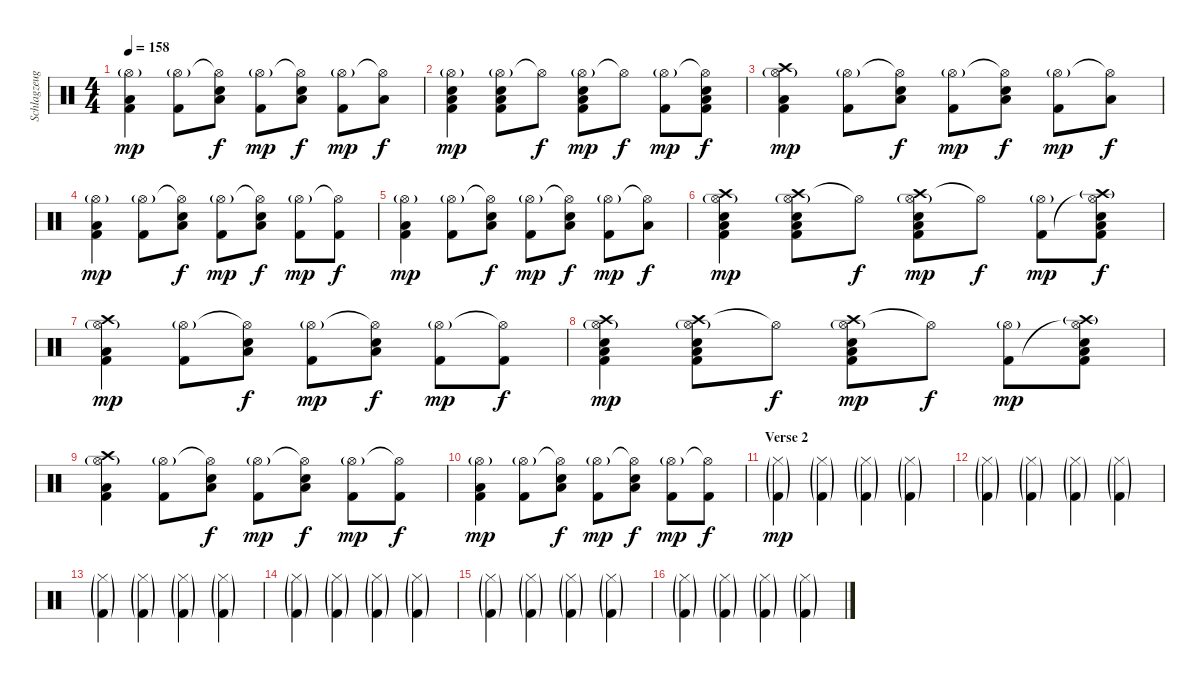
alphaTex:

\track ("Schlagzeug" "Schlagzeug") {instrument percussion}
\staff {score}
\articulation defaults
\ts (4 4)
\tempo 158
\clef neutral
\ks c
("Hi-Hat (open)"{g} "Low Floor Tom (hit)" "Kick (hit) 2").4{dy mp} ("Hi-Hat (open)"{g} "Kick (hit) 2").8 ("Hi-Hat (open)"{t} "Low Floor Tom (hit)" "Electric Snare (hit)").8{dy f} ("Hi-Hat (open)"{g} "Kick (hit) 2").8{dy mp} ("Hi-Hat (open)"{t} "Low Floor Tom (hit)" "Electric Snare (hit)").8{dy f} ("Hi-Hat (open)"{g} "Kick (hit) 2").8{dy mp} ("Hi-Hat (open)"{t} "Low Floor Tom (hit)").8{dy f} |
("Hi-Hat (open)"{g} "Low Floor Tom (hit)" "Electric Snare (hit)" "Kick (hit) 2").4{dy mp} ("Hi-Hat (open)"{g} "Low Floor Tom (hit)" "Electric Snare (hit)" "Kick (hit) 2").8 "Hi-Hat (open)"{t}.8{dy f} ("Hi-Hat (open)"{g} "Low Floor Tom (hit)" "Electric Snare (hit)" "Kick (hit) 2").8{dy mp} "Hi-Hat (open)"{t}.8{dy f} ("Hi-Hat (open)"{g} "Kick (hit) 2").8{dy mp} ("Hi-Hat (open)"{t} "Low Floor Tom (hit)" "Electric Snare (hit)" "Kick (hit) 2").8{dy f} |
("Crash high (hit)" "Hi-Hat (open)"{g} "Low Floor Tom (hit)" "Kick (hit) 2").4{dy mp} ("Hi-Hat (open)"{g} "Kick (hit) 2").8 ("Hi-Hat (open)"{t} "Low Floor Tom (hit)" "Electric Snare (hit)").8{dy f} ("Hi-Hat (open)"{g} "Kick (hit) 2").8{dy mp} ("Hi-Hat (open)"{t} "Low Floor Tom (hit)" "Electric Snare (hit)").8{dy f} ("Hi-Hat (open)"{g} "Kick (hit) 2").8{dy mp} ("Hi-Hat (open)"{t} "Low Floor Tom (hit)").8{dy f} |
("Hi-Hat (open)"{g} "Low Floor Tom (hit)" "Kick (hit) 2").4{dy mp} ("Hi-Hat (open)"{g} "Kick (hit) 2").8 ("Hi-Hat (open)"{t} "Low Floor Tom (hit)" "Electric Snare (hit)").8{dy f} ("Hi-Hat (open)"{g} "Kick (hit) 2").8{dy mp} ("Hi-Hat (open)"{t} "Low Floor Tom (hit)" "Electric Snare (hit)").8{dy f} ("Hi-Hat (open)"{g} "Kick (hit) 2").8{dy mp} ("Hi-Hat (open)"{t} "Kick (hit) 2").8{dy f} |
("Hi-Hat (open)"{g} "Low Floor Tom (hit)" "Kick (hit) 2").4{dy mp} ("Hi-Hat (open)"{g} "Kick (hit) 2").8 ("Hi-Hat (open)"{t} "Low Floor Tom (hit)" "Electric Snare (hit)").8{dy f} ("Hi-Hat (open)"{g} "Kick (hit) 2").8{dy mp} ("Hi-Hat (open)"{t} "Low Floor Tom (hit)" "Electric Snare (hit)").8{dy f} ("Hi-Hat (open)"{g} "Kick (hit) 2").8{dy mp} ("Hi-Hat (open)"{t} "Low Floor Tom (hit)").8{dy f} |
("Crash high (hit)" "Hi-Hat (open)"{g} "Low Floor Tom (hit)" "Electric Snare (hit)" "Kick (hit) 2").4{dy mp} ("Crash high (hit)" "Hi-Hat (open)"{g} "Low Floor Tom (hit)" "Electric Snare (hit)" "Kick (hit) 2").8 "Hi-Hat (open)"{t}.8{dy f} ("Crash high (hit)" "Hi-Hat (open)"{g} "Low Floor Tom (hit)" "Electric Snare (hit)" "Kick (hit) 2").8{dy mp} "Hi-Hat (open)"{t}.8{dy f} ("Hi-Hat (open)"{g} "Kick (hit) 2").8{dy mp} ("Crash high (hit)"{g} "Hi-Hat (open)"{t} "Low Floor Tom (hit)" "Electric Snare (hit)" "Kick (hit) 2").8{dy f} |
("Crash high (hit)" "Hi-Hat (open)"{g} "Low Floor Tom (hit)" "Kick (hit) 2").4{dy mp} ("Hi-Hat (open)"{g} "Kick (hit) 2").8 ("Hi-Hat (open)"{t} "Low Floor Tom (hit)" "Electric Snare (hit)").8{dy f} ("Hi-Hat (open)"{g} "Kick (hit) 2").8{dy mp} ("Hi-Hat (open)"{t} "Low Floor Tom (hit)" "Electric Snare (hit)").8{dy f} ("Hi-Hat (open)"{g} "Kick (hit) 2").8{dy mp} ("Hi-Hat (open)"{t} "Kick (hit) 2").8{dy f} |
("Crash high (hit)" "Hi-Hat (open)"{g} "Low Floor Tom (hit)" "Electric Snare (hit)" "Kick (hit) 2").4{dy mp} ("Crash high (hit)" "Hi-Hat (open)"{g} "Low Floor Tom (hit)" "Electric Snare (hit)" "Kick (hit) 2").8 "Hi-Hat (open)"{t}.8{dy f} ("Crash high (hit)" "Hi-Hat (open)"{g} "Low Floor Tom (hit)" "Electric Snare (hit)" "Kick (hit) 2").8{dy mp} "Hi-Hat (open)"{t}.8{dy f} ("Hi-Hat (open)"{g} "Kick (hit) 2").8{dy mp} ("Crash high (hit)"{g} "Hi-Hat (open)"{t} "Low Floor Tom (hit)" "Electric Snare (hit)" "Kick (hit) 2").8 |
("Crash high (hit)" "Hi-Hat (open)"{g} "Low Floor Tom (hit)" "Kick (hit) 2").4 ("Hi-Hat (open)"{g} "Kick (hit) 2").8 ("Hi-Hat (open)"{t} "Low Floor Tom (hit)" "Electric Snare (hit)").8{dy f} ("Hi-Hat (open)"{g} "Kick (hit) 2").8{dy mp} ("Hi-Hat (open)"{t} "Low Floor Tom (hit)" "Electric Snare (hit)").8{dy f} ("Hi-Hat (open)"{g} "Kick (hit) 2").8{dy mp} ("Hi-Hat (open)"{t} "Kick (hit) 2").8{dy f} |
("Hi-Hat (open)"{g} "Low Floor Tom (hit)" "Kick (hit) 2").4{dy mp} ("Hi-Hat (open)"{g} "Kick (hit) 2").8 ("Hi-Hat (open)"{t} "Low Floor Tom (hit)" "Electric Snare (hit)").8{dy f} ("Hi-Hat (open)"{g} "Kick (hit) 2").8{dy mp} ("Hi-Hat (open)"{t} "Low Floor Tom (hit)" "Electric Snare (hit)").8{dy f} ("Hi-Hat (open)"{g} "Kick (hit) 2").8{dy mp} ("Hi-Hat (open)"{t} "Kick (hit) 2").8{dy f} |
\section ("" "Verse 2")
("Hi-Hat (closed)"{g} "Kick (hit) 2"{g}).4{dy mp} ("Hi-Hat (closed)"{g} "Kick (hit) 2"{g}).4 ("Hi-Hat (closed)"{g} "Kick (hit) 2"{g}).4 ("Hi-Hat (closed)"{g} "Kick (hit) 2"{g}).4 |
("Hi-Hat (closed)"{g} "Kick (hit) 2"{g}).4 ("Hi-Hat (closed)"{g} "Kick (hit) 2"{g}).4 ("Hi-Hat (closed)"{g} "Kick (hit) 2"{g}).4 ("Hi-Hat (closed)"{g} "Kick (hit) 2"{g}).4 |
("Hi-Hat (closed)"{g} "Kick (hit) 2"{g}).4 ("Hi-Hat (closed)"{g} "Kick (hit) 2"{g}).4 ("Hi-Hat (closed)"{g} "Kick (hit) 2"{g}).4 ("Hi-Hat (closed)"{g} "Kick (hit) 2"{g}).4 |
("Hi-Hat (closed)"{g} "Kick (hit) 2"{g}).4 ("Hi-Hat (closed)"{g} "Kick (hit) 2"{g}).4 ("Hi-Hat (closed)"{g} "Kick (hit) 2"{g}).4 ("Hi-Hat (closed)"{g} "Kick (hit) 2"{g}).4 |
("Hi-Hat (closed)"{g} "Kick (hit) 2"{g}).4 ("Hi-Hat (closed)"{g} "Kick (hit) 2"{g}).4 ("Hi-Hat (closed)"{g} "Kick (hit) 2"{g}).4 ("Hi-Hat (closed)"{g} "Kick (hit) 2"{g}).4 |
("Hi-Hat (closed)"{g} "Kick (hit) 2"{g}).4 ("Hi-Hat (closed)"{g} "Kick (hit) 2"{g}).4 ("Hi-Hat (closed)"{g} "Kick (hit) 2"{g}).4 ("Hi-Hat (closed)"{g} "Kick (hit) 2"{g}).4
